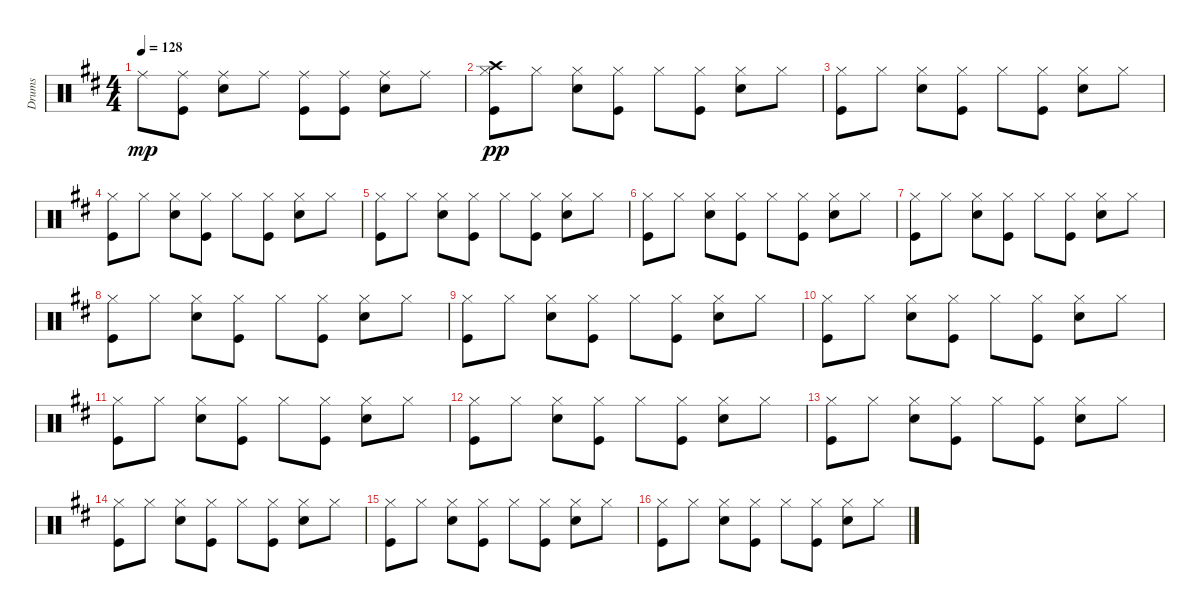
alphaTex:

\track ("Drums" "Drums") {instrument percussion}
\staff {score}
\articulation defaults
\ts (4 4)
\tempo 128
\clef neutral
\ks d "Ride (middle)".8{dy mp}
("Ride (middle)" "Kick (hit)").8 ("Ride (middle)" "Electric Snare (hit)").8 "Ride (middle)".8 ("Ride (middle)" "Kick (hit)").8 ("Ride (middle)" "Kick (hit)").8 ("Ride (middle)" "Electric Snare (hit)").8 "Ride (middle)".8 |
("Crash high (hit)" "Hi-Hat (closed)" "Kick (hit)").8{dy pp} "Hi-Hat (closed)".8 ("Hi-Hat (closed)" "Electric Snare (hit)").8 ("Hi-Hat (closed)" "Kick (hit)").8 "Hi-Hat (closed)".8 ("Hi-Hat (closed)" "Kick (hit)").8 ("Hi-Hat (closed)" "Electric Snare (hit)").8 "Hi-Hat (closed)".8 |
("Hi-Hat (closed)" "Kick (hit)").8 "Hi-Hat (closed)".8 ("Hi-Hat (closed)" "Electric Snare (hit)").8 ("Hi-Hat (closed)" "Kick (hit)").8 "Hi-Hat (closed)".8 ("Hi-Hat (closed)" "Kick (hit)").8 ("Hi-Hat (closed)" "Electric Snare (hit)").8 "Hi-Hat (closed)".8 |
("Hi-Hat (closed)" "Kick (hit)").8 "Hi-Hat (closed)".8 ("Hi-Hat (closed)" "Electric Snare (hit)").8 ("Hi-Hat (closed)" "Kick (hit)").8 "Hi-Hat (closed)".8 ("Hi-Hat (closed)" "Kick (hit)").8 ("Hi-Hat (closed)" "Electric Snare (hit)").8 "Hi-Hat (closed)".8 |
("Hi-Hat (closed)" "Kick (hit)").8 "Hi-Hat (closed)".8 ("Hi-Hat (closed)" "Electric Snare (hit)").8 ("Hi-Hat (closed)" "Kick (hit)").8 "Hi-Hat (closed)".8 ("Hi-Hat (closed)" "Kick (hit)").8 ("Hi-Hat (closed)" "Electric Snare (hit)").8 "Hi-Hat (closed)".8 |
("Hi-Hat (closed)" "Kick (hit)").8 "Hi-Hat (closed)".8 ("Hi-Hat (closed)" "Electric Snare (hit)").8 ("Hi-Hat (closed)" "Kick (hit)").8 "Hi-Hat (closed)".8 ("Hi-Hat (closed)" "Kick (hit)").8 ("Hi-Hat (closed)" "Electric Snare (hit)").8 "Hi-Hat (closed)".8 |
("Hi-Hat (closed)" "Kick (hit)").8 "Hi-Hat (closed)".8 ("Hi-Hat (closed)" "Electric Snare (hit)").8 ("Hi-Hat (closed)" "Kick (hit)").8 "Hi-Hat (closed)".8 ("Hi-Hat (closed)" "Kick (hit)").8 ("Hi-Hat (closed)" "Electric Snare (hit)").8 "Hi-Hat (closed)".8 |
("Hi-Hat (closed)" "Kick (hit)").8 "Hi-Hat (closed)".8 ("Hi-Hat (closed)" "Electric Snare (hit)").8 ("Hi-Hat (closed)" "Kick (hit)").8 "Hi-Hat (closed)".8 ("Hi-Hat (closed)" "Kick (hit)").8 ("Hi-Hat (closed)" "Electric Snare (hit)").8 "Hi-Hat (closed)".8 |
("Hi-Hat (closed)" "Kick (hit)").8 "Hi-Hat (closed)".8 ("Hi-Hat (closed)" "Electric Snare (hit)").8 ("Hi-Hat (closed)" "Kick (hit)").8 "Hi-Hat (closed)".8 ("Hi-Hat (closed)" "Kick (hit)").8 ("Hi-Hat (closed)" "Electric Snare (hit)").8 "Hi-Hat (closed)".8 |
("Hi-Hat (closed)" "Kick (hit)").8 "Hi-Hat (closed)".8 ("Hi-Hat (closed)" "Electric Snare (hit)").8 ("Hi-Hat (closed)" "Kick (hit)").8 "Hi-Hat (closed)".8 ("Hi-Hat (closed)" "Kick (hit)").8 ("Hi-Hat (closed)" "Electric Snare (hit)").8 "Hi-Hat (closed)".8 |
("Hi-Hat (closed)" "Kick (hit)").8 "Hi-Hat (closed)".8 ("Hi-Hat (closed)" "Electric Snare (hit)").8 ("Hi-Hat (closed)" "Kick (hit)").8 "Hi-Hat (closed)".8 ("Hi-Hat (closed)" "Kick (hit)").8 ("Hi-Hat (closed)" "Electric Snare (hit)").8 "Hi-Hat (closed)".8 |
("Hi-Hat (closed)" "Kick (hit)").8 "Hi-Hat (closed)".8 ("Hi-Hat (closed)" "Electric Snare (hit)").8 ("Hi-Hat (closed)" "Kick (hit)").8 "Hi-Hat (closed)".8 ("Hi-Hat (closed)" "Kick (hit)").8 ("Hi-Hat (closed)" "Electric Snare (hit)").8 "Hi-Hat (closed)".8 |
("Hi-Hat (closed)" "Kick (hit)").8 "Hi-Hat (closed)".8 ("Hi-Hat (closed)" "Electric Snare (hit)").8 ("Hi-Hat (closed)" "Kick (hit)").8 "Hi-Hat (closed)".8 ("Hi-Hat (closed)" "Kick (hit)").8 ("Hi-Hat (closed)" "Electric Snare (hit)").8 "Hi-Hat (closed)".8 |
("Hi-Hat (closed)" "Kick (hit)").8 "Hi-Hat (closed)".8 ("Hi-Hat (closed)" "Electric Snare (hit)").8 ("Hi-Hat (closed)" "Kick (hit)").8 "Hi-Hat (closed)".8 ("Hi-Hat (closed)" "Kick (hit)").8 ("Hi-Hat (closed)" "Electric Snare (hit)").8 "Hi-Hat (closed)".8 |
("Hi-Hat (closed)" "Kick (hit)").8 "Hi-Hat (closed)".8 ("Hi-Hat (closed)" "Electric Snare (hit)").8 ("Hi-Hat (closed)" "Kick (hit)").8 "Hi-Hat (closed)".8 ("Hi-Hat (closed)" "Kick (hit)").8 ("Hi-Hat (closed)" "Electric Snare (hit)").8 "Hi-Hat (closed)".8 |
("Hi-Hat (closed)" "Kick (hit)").8 "Hi-Hat (closed)".8 ("Hi-Hat (closed)" "Electric Snare (hit)").8 ("Hi-Hat (closed)" "Kick (hit)").8 "Hi-Hat (closed)".8 ("Hi-Hat (closed)" "Kick (hit)").8 ("Hi-Hat (closed)" "Electric Snare (hit)").8 "Hi-Hat (closed)".8
